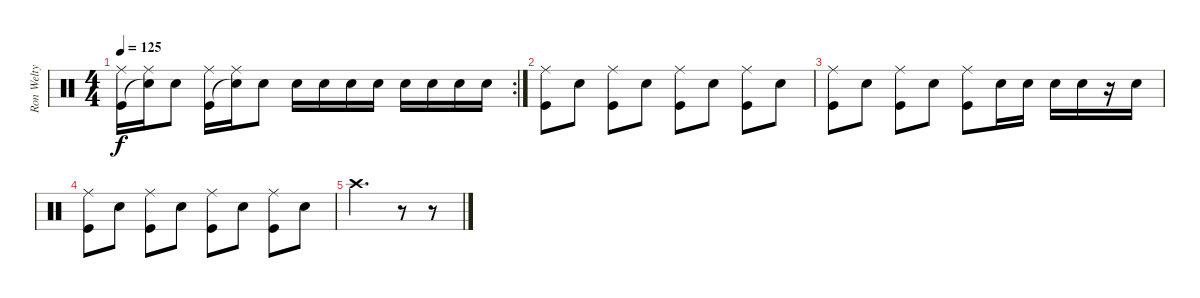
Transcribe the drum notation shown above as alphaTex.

\track ("Ron Welty" "Ron Welty") {instrument percussion}
\staff {score}
\articulation defaults
\rc 2
\ts (4 4)
\tempo 125
\clef neutral
\ks c
("Ride (middle)" "Kick (hit)").16{dy f} ("Ride (middle)" "Snare (hit)"{t}).16 "Snare (hit) 2".8 ("Ride (middle)" "Kick (hit)").16 ("Ride (middle)" "Snare (hit)"{t}).16 "Snare (hit) 2".8 "Snare (hit) 2".16 "Snare (hit) 2".16 "Snare (hit) 2".16 "Snare (hit) 2".16 "Snare (hit) 2".16 "Snare (hit) 2".16 "Snare (hit) 2".16 "Snare (hit) 2".16 |
("Ride (middle)" "Kick (hit)").8 "Snare (hit) 2".8 ("Ride (middle)" "Kick (hit)").8 "Snare (hit) 2".8 ("Ride (middle)" "Kick (hit)").8 "Snare (hit) 2".8 ("Ride (middle)" "Kick (hit)").8 "Snare (hit) 2".8 |
("Ride (middle)" "Kick (hit)").8 "Snare (hit) 2".8 ("Ride (middle)" "Kick (hit)").8 "Snare (hit) 2".8 ("Ride (middle)" "Kick (hit)").8 "Snare (hit) 2".16 "Snare (hit) 2".16 "Snare (hit) 2".16 "Snare (hit) 2".16 r.16 "Snare (hit) 2".16 |
("Ride (middle)" "Kick (hit)").8 "Snare (hit) 2".8 ("Ride (middle)" "Kick (hit)").8 "Snare (hit) 2".8 ("Ride (middle)" "Kick (hit)").8 "Snare (hit) 2".8 ("Ride (middle)" "Kick (hit)").8 "Snare (hit) 2".8 |
"Crash high (hit)".2{d} r.8 r.8
